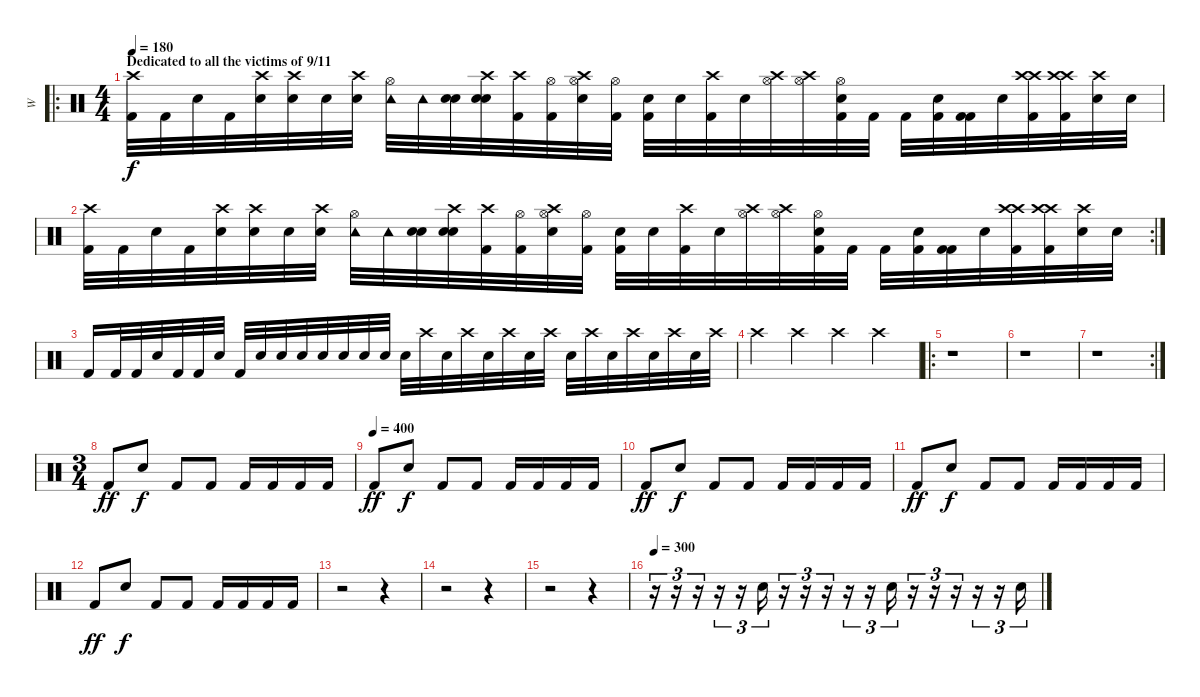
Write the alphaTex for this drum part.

\track ("W" "W") {instrument percussion}
\staff {score}
\articulation defaults
\ro
\ts (4 4)
\section ("" "Dedicated to all the victims of 9/11")
\tempo 180
\clef neutral
\ks c
("Crash high (hit)" "Kick (hit) 2").32{dy f} "Kick (hit) 2".32 "Electric Snare (hit)".32 "Kick (hit) 2".32 ("Crash high (hit)" "Electric Snare (hit)").32 ("Electric Snare (hit)" "Crash high (hit)").32 "Electric Snare (hit)".32 ("Crash high (hit)" "Electric Snare (hit)").32 ("Tambourine (hit)" "Hi-Hat (open)").32 "Tambourine (hit)".32 ("Electric Snare (hit)" "Electric Snare (hit)").32 ("Crash high (hit)" "Electric Snare (hit)" "Electric Snare (hit)").32 ("Kick (hit) 2" "Crash high (hit)").32 ("Kick (hit) 2" "Hi-Hat (open)").32 ("Crash high (hit)" "Hi-Hat (open)" "Electric Snare (hit)").32 ("Hi-Hat (open)" "Kick (hit) 2").32 ("Electric Snare (hit)" "Kick (hit) 2").32 "Electric Snare (hit)".32 ("Crash high (hit)" "Kick (hit) 2").32 "Electric Snare (hit)".32 ("Crash high (hit)" "Hi-Hat (open)").32 ("Crash high (hit)" "Hi-Hat (open)").32 ("Hi-Hat (open)" "Electric Snare (hit)" "Kick (hit) 2").32 "Kick (hit) 2".32 "Kick (hit) 2".32 ("Electric Snare (hit)" "Kick (hit) 2").32 ("Kick (hit) 2" "Kick (hit) 2").32 "Electric Snare (hit)".32 ("Kick (hit) 2" "Crash high (hit)" "Crash high (hit)").32 ("Kick (hit) 2" "Crash high (hit)" "Crash high (hit)").32 ("Electric Snare (hit)" "Crash high (hit)").32 "Electric Snare (hit)".32 |
\rc 2
("Crash high (hit)" "Kick (hit) 2").32 "Kick (hit) 2".32 "Electric Snare (hit)".32 "Kick (hit) 2".32 ("Crash high (hit)" "Electric Snare (hit)").32 ("Electric Snare (hit)" "Crash high (hit)").32 "Electric Snare (hit)".32 ("Crash high (hit)" "Electric Snare (hit)").32 ("Tambourine (hit)" "Hi-Hat (open)").32 "Tambourine (hit)".32 ("Electric Snare (hit)" "Electric Snare (hit)").32 ("Crash high (hit)" "Electric Snare (hit)" "Electric Snare (hit)").32 ("Kick (hit) 2" "Crash high (hit)").32 ("Kick (hit) 2" "Hi-Hat (open)").32 ("Crash high (hit)" "Hi-Hat (open)" "Electric Snare (hit)").32 ("Hi-Hat (open)" "Kick (hit) 2").32 ("Electric Snare (hit)" "Kick (hit) 2").32 "Electric Snare (hit)".32 ("Crash high (hit)" "Kick (hit) 2").32 "Electric Snare (hit)".32 ("Crash high (hit)" "Hi-Hat (open)").32 ("Crash high (hit)" "Hi-Hat (open)").32 ("Hi-Hat (open)" "Electric Snare (hit)" "Kick (hit) 2").32 "Kick (hit) 2".32 "Kick (hit) 2".32 ("Electric Snare (hit)" "Kick (hit) 2").32 ("Kick (hit) 2" "Kick (hit) 2").32 "Electric Snare (hit)".32 ("Kick (hit) 2" "Crash high (hit)" "Crash high (hit)").32 ("Kick (hit) 2" "Crash high (hit)" "Crash high (hit)").32 ("Electric Snare (hit)" "Crash high (hit)").32 "Electric Snare (hit)".32 |
"Kick (hit) 2".16 "Kick (hit) 2".32 "Kick (hit) 2".32 "Electric Snare (hit)".32 "Kick (hit) 2".32 "Kick (hit) 2".32 "Electric Snare (hit)".32 "Kick (hit) 2".32 "Electric Snare (hit)".32 "Electric Snare (hit)".32 "Electric Snare (hit)".32 "Electric Snare (hit)".32 "Electric Snare (hit)".32 "Electric Snare (hit)".32 "Electric Snare (hit)".32 "Electric Snare (hit)".32 "Crash high (hit)".32 "Electric Snare (hit)".32 "Crash high (hit)".32 "Electric Snare (hit)".32 "Crash high (hit)".32 "Electric Snare (hit)".32 "Crash high (hit)".32 "Electric Snare (hit)".32 "Crash high (hit)".32 "Electric Snare (hit)".32 "Crash high (hit)".32 "Electric Snare (hit)".32 "Crash high (hit)".32 "Electric Snare (hit)".32 "Crash high (hit)".32 |
"Crash high (hit)".4 "Crash high (hit)".4 "Crash high (hit)".4 "Crash high (hit)".4 |
\ro
r.1 |
r.1 |
\rc 2
r.1 |
\ts (3 4)
"Kick (hit) 2".8{dy ff} "Electric Snare (hit)".8{dy f} "Kick (hit) 2".8 "Kick (hit) 2".8 "Kick (hit) 2".16 "Kick (hit) 2".16 "Kick (hit) 2".16 "Kick (hit) 2".16 |
\tempo (400)
"Kick (hit) 2".8{dy ff} "Electric Snare (hit)".8{dy f} "Kick (hit) 2".8 "Kick (hit) 2".8 "Kick (hit) 2".16 "Kick (hit) 2".16 "Kick (hit) 2".16 "Kick (hit) 2".16 |
"Kick (hit) 2".8{dy ff} "Electric Snare (hit)".8{dy f} "Kick (hit) 2".8 "Kick (hit) 2".8 "Kick (hit) 2".16 "Kick (hit) 2".16 "Kick (hit) 2".16 "Kick (hit) 2".16 |
"Kick (hit) 2".8{dy ff} "Electric Snare (hit)".8{dy f} "Kick (hit) 2".8 "Kick (hit) 2".8 "Kick (hit) 2".16 "Kick (hit) 2".16 "Kick (hit) 2".16 "Kick (hit) 2".16 |
"Kick (hit) 2".8{dy ff} "Electric Snare (hit)".8{dy f} "Kick (hit) 2".8 "Kick (hit) 2".8 "Kick (hit) 2".16 "Kick (hit) 2".16 "Kick (hit) 2".16 "Kick (hit) 2".16 |
r.2 r.4 |
r.2 r.4 |
r.2 r.4 |
\tempo 2
\tempo 80
\tempo 300
r.16{tu (3 2)} r.16{tu (3 2)} r.16{tu (3 2)} r.16{tu (3 2)} r.16{tu (3 2)} "Electric Snare (hit)".16{tu (3 2)} r.16{tu (3 2)} r.16{tu (3 2)} r.16{tu (3 2)} r.16{tu (3 2)} r.16{tu (3 2)} "Electric Snare (hit)".16{tu (3 2)} r.16{tu (3 2)} r.16{tu (3 2)} r.16{tu (3 2)} r.16{tu (3 2)} r.16{tu (3 2)} "Electric Snare (hit)".16{tu (3 2)}
